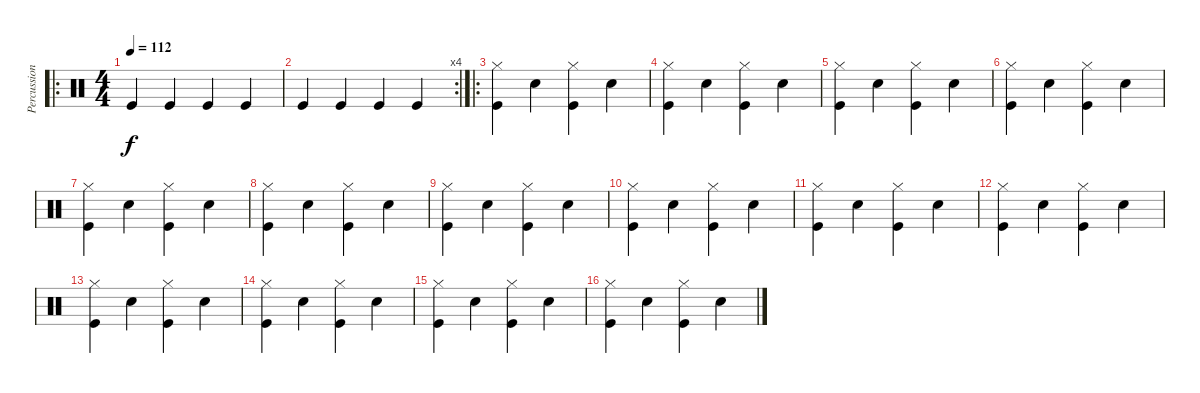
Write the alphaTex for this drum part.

\track ("Percussions" "Percussion") {instrument percussion}
\staff {score}
\articulation defaults
\ro
\ts (4 4)
\tempo 112
\clef neutral
\ks c "Kick (hit)".4{dy f} "Kick (hit)".4 "Kick (hit)".4 "Kick (hit)".4
|
\rc 4 "Kick (hit)".4 "Kick (hit)".4 "Kick (hit)".4 "Kick (hit)".4
|
\ro
("Kick (hit)" "Hi-Hat (closed)").4 "Electric Snare (hit)".4 ("Kick (hit)" "Hi-Hat (closed)").4 "Electric Snare (hit)".4 |
("Kick (hit)" "Hi-Hat (closed)").4 "Electric Snare (hit)".4 ("Kick (hit)" "Hi-Hat (closed)").4 "Electric Snare (hit)".4 |
("Kick (hit)" "Hi-Hat (closed)").4 "Electric Snare (hit)".4 ("Kick (hit)" "Hi-Hat (closed)").4 "Electric Snare (hit)".4 |
("Kick (hit)" "Hi-Hat (closed)").4 "Electric Snare (hit)".4 ("Kick (hit)" "Hi-Hat (closed)").4 "Electric Snare (hit)".4 |
("Kick (hit)" "Hi-Hat (closed)").4 "Electric Snare (hit)".4 ("Kick (hit)" "Hi-Hat (closed)").4 "Electric Snare (hit)".4 |
("Kick (hit)" "Hi-Hat (closed)").4 "Electric Snare (hit)".4 ("Kick (hit)" "Hi-Hat (closed)").4 "Electric Snare (hit)".4 |
("Kick (hit)" "Hi-Hat (closed)").4 "Electric Snare (hit)".4 ("Kick (hit)" "Hi-Hat (closed)").4 "Electric Snare (hit)".4 |
("Kick (hit)" "Hi-Hat (closed)").4 "Electric Snare (hit)".4 ("Kick (hit)" "Hi-Hat (closed)").4 "Electric Snare (hit)".4 |
("Kick (hit)" "Hi-Hat (closed)").4 "Electric Snare (hit)".4 ("Kick (hit)" "Hi-Hat (closed)").4 "Electric Snare (hit)".4 |
("Kick (hit)" "Hi-Hat (closed)").4 "Electric Snare (hit)".4 ("Kick (hit)" "Hi-Hat (closed)").4 "Electric Snare (hit)".4 |
("Kick (hit)" "Hi-Hat (closed)").4 "Electric Snare (hit)".4 ("Kick (hit)" "Hi-Hat (closed)").4 "Electric Snare (hit)".4 |
("Kick (hit)" "Hi-Hat (closed)").4 "Electric Snare (hit)".4 ("Kick (hit)" "Hi-Hat (closed)").4 "Electric Snare (hit)".4 |
("Kick (hit)" "Hi-Hat (closed)").4 "Electric Snare (hit)".4 ("Kick (hit)" "Hi-Hat (closed)").4 "Electric Snare (hit)".4 |
("Kick (hit)" "Hi-Hat (closed)").4 "Electric Snare (hit)".4 ("Kick (hit)" "Hi-Hat (closed)").4 "Electric Snare (hit)".4
